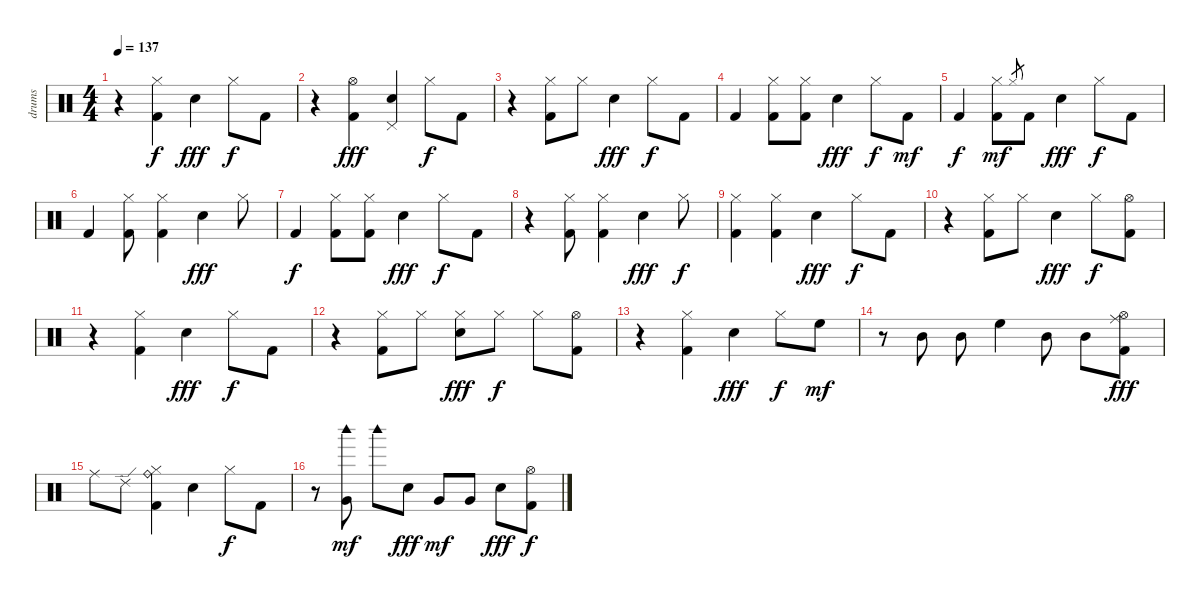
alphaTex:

\track ("drums" "drums") {instrument percussion}
\staff {score}
\articulation defaults
\ts (4 4)
\tempo 137
\clef neutral
\ks c
r.4{dy f} ("Hi-Hat (closed)" "Kick (hit) 2").4 "Electric Snare (hit)".4{dy fff} "Hi-Hat (closed)".8{dy f} "Kick (hit) 2".8 |
r.4 ("Hi-Hat (open)" "Kick (hit) 2").4{dy fff} ("Pedal Hi-Hat (hit)" "Electric Snare (hit)").4 "Hi-Hat (closed)".8{dy f} "Kick (hit) 2".8 |
r.4 ("Hi-Hat (closed)" "Kick (hit) 2").8 "Hi-Hat (closed)".8 "Electric Snare (hit)".4{dy fff} "Hi-Hat (closed)".8{dy f} "Kick (hit) 2".8 |
"Kick (hit) 2".4 ("Hi-Hat (closed)" "Kick (hit) 2").8 ("Hi-Hat (closed)" "Kick (hit) 2").8 "Electric Snare (hit)".4{dy fff} "Hi-Hat (closed)".8{dy f} "Kick (hit) 2".8{dy mf} |
"Kick (hit) 2".4{dy f} ("Hi-Hat (closed)" "Kick (hit) 2").8{dy mf} "Hi-Hat (closed)".8{gr} "Kick (hit) 2".8 "Electric Snare (hit)".4{dy fff} "Hi-Hat (closed)".8{dy f} "Kick (hit) 2".8 |
"Kick (hit) 2".4 ("Hi-Hat (closed)" "Kick (hit) 2").8 ("Hi-Hat (closed)" "Kick (hit) 2").4 "Electric Snare (hit)".4{dy fff} "Hi-Hat (closed)".8 |
"Kick (hit) 2".4{dy f} ("Hi-Hat (closed)" "Kick (hit) 2").8 ("Hi-Hat (closed)" "Kick (hit) 2").8 "Electric Snare (hit)".4{dy fff} "Hi-Hat (closed)".8{dy f} "Kick (hit) 2".8 |
r.4 ("Hi-Hat (closed)" "Kick (hit) 2").8 ("Hi-Hat (closed)" "Kick (hit) 2").4 "Electric Snare (hit)".4{dy fff} "Hi-Hat (closed)".8{dy f} |
("Kick (hit) 2" "Hi-Hat (closed)").4 ("Hi-Hat (closed)" "Kick (hit) 2").4 "Electric Snare (hit)".4{dy fff} "Hi-Hat (closed)".8{dy f} "Kick (hit) 2".8 |
r.4 ("Hi-Hat (closed)" "Kick (hit) 2").8 "Hi-Hat (closed)".8 "Electric Snare (hit)".4{dy fff} "Hi-Hat (closed)".8{dy f} ("Kick (hit) 2" "Hi-Hat (open)").8 |
r.4 ("Hi-Hat (closed)" "Kick (hit) 2").4 "Electric Snare (hit)".4{dy fff} "Hi-Hat (closed)".8{dy f} "Kick (hit) 2".8 |
r.4 ("Hi-Hat (closed)" "Kick (hit) 2").8 "Hi-Hat (closed)".8 ("Hi-Hat (closed)" "Electric Snare (hit)").8{dy fff} "Hi-Hat (closed)".8{dy f} "Hi-Hat (closed)".8 ("Kick (hit) 2" "Hi-Hat (open)").8 |
r.4 ("Kick (hit) 2" "Hi-Hat (closed)").4 "Electric Snare (hit)".4{dy fff} "Hi-Hat (closed)".8{dy f} "High Floor Tom (hit)".8{dy mf} |
r.8 "Mid Tom (hit)".8 "Mid Tom (hit)".8 "High Floor Tom (hit)".4 "Mid Tom (hit)".8 "Mid Tom (hit)".8 ("Ride (middle)" "Hi-Hat (open)" "Kick (hit) 2").8{dy fff} |
"Ride (middle)".8 "Ride (edge) 2".8 ("Ride (bell)" "Hi-Hat (closed)" "Kick (hit) 2").4 "Electric Snare (hit)".4 "Hi-Hat (closed)".8{dy f} "Kick (hit) 2".8 |
r.8 ("Woodblock high (hit)" "Very Low Tom (hit)").8{dy mf} "Woodblock high (hit)".8 "Electric Snare (hit)".8{dy fff} "Very Low Tom (hit)".8{dy mf} "Very Low Tom (hit)".8 "Electric Snare (hit)".8{dy fff} ("Hi-Hat (open)" "Kick (hit) 2").8{dy f}
